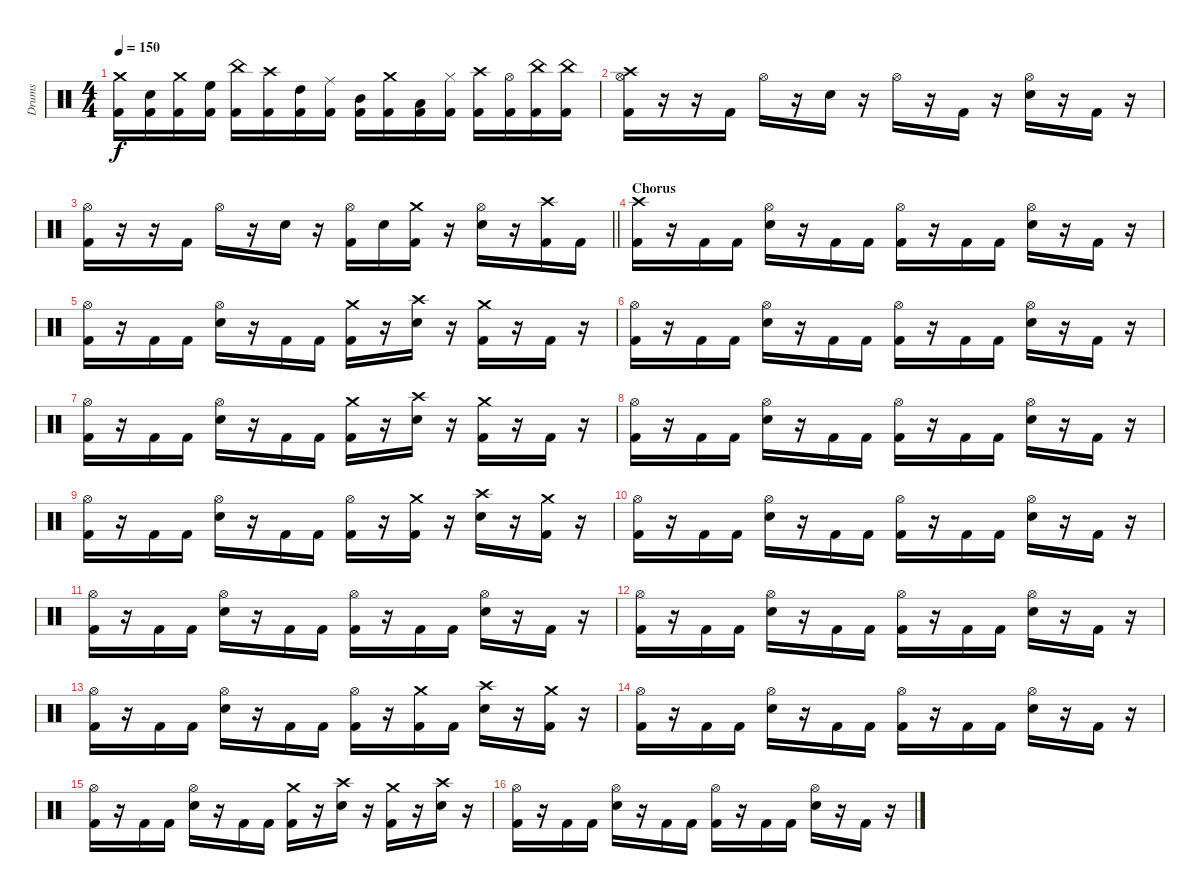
\track ("Drums" "Drums") {instrument percussion}
\staff {score}
\articulation defaults
\ts (4 4)
\tempo 150
\clef neutral
\ks c
("Crash medium (hit)" "Kick (hit) 2").16{dy f} ("Snare (hit) 2" "Kick (hit) 2").16 ("Crash medium (hit)" "Kick (hit) 2").16 ("High Floor Tom (hit)" "Kick (hit) 2").16 ("China (hit)" "Kick (hit) 2").16 ("Crash high (hit)" "Kick (hit) 2").16 ("High Tom (hit)" "Kick (hit) 2").16 ("Ride (middle)" "Kick (hit) 2").16 ("Mid Tom (hit)" "Kick (hit) 2").16 ("Crash medium (hit)" "Kick (hit) 2").16 ("Low Tom (hit)" "Kick (hit) 2").16 ("Hi-Hat (closed)" "Kick (hit) 2").16 ("Crash high (hit)" "Kick (hit) 2").16 ("Hi-Hat (open)" "Kick (hit) 2").16 ("China (hit)" "Kick (hit) 2").16 ("China (hit)" "Kick (hit) 2").16 |
("Hi-Hat (open)" "Crash high (hit)" "Kick (hit) 2").16 r.16 r.16 "Kick (hit) 2".16 "Hi-Hat (open)".16 r.16 "Snare (hit) 2".16 r.16 "Hi-Hat (open)".16 r.16 "Kick (hit) 2".16 r.16 ("Hi-Hat (open)" "Snare (hit) 2").16 r.16 "Kick (hit) 2".16 r.16 |
\barLineRight lightlight
("Hi-Hat (open)" "Kick (hit) 2").16 r.16 r.16 "Kick (hit) 2".16 "Hi-Hat (open)".16 r.16 "Snare (hit) 2".16 r.16 ("Hi-Hat (open)" "Kick (hit) 2").16 "Snare (hit) 2".16 ("Crash medium (hit)" "Kick (hit) 2").16 r.16 ("Hi-Hat (open)" "Snare (hit) 2").16 r.16 ("Crash high (hit)" "Kick (hit) 2").16 "Kick (hit) 2".16 |
\section ("" "Chorus")
("Crash high (hit)" "Kick (hit) 2").16 r.16 "Kick (hit) 2".16 "Kick (hit) 2".16 ("Hi-Hat (open)" "Snare (hit) 2").16 r.16 "Kick (hit) 2".16 "Kick (hit) 2".16 ("Hi-Hat (open)" "Kick (hit) 2").16 r.16 "Kick (hit) 2".16 "Kick (hit) 2".16 ("Hi-Hat (open)" "Snare (hit) 2").16 r.16 "Kick (hit) 2".16 r.16 |
("Hi-Hat (open)" "Kick (hit) 2").16 r.16 "Kick (hit) 2".16 "Kick (hit) 2".16 ("Hi-Hat (open)" "Snare (hit) 2").16 r.16 "Kick (hit) 2".16 "Kick (hit) 2".16 ("Crash medium (hit)" "Kick (hit) 2").16 r.16 ("Crash high (hit)" "Snare (hit) 2").16 r.16 ("Crash medium (hit)" "Kick (hit) 2").16 r.16 "Kick (hit) 2".16 r.16 |
("Hi-Hat (open)" "Kick (hit) 2").16 r.16 "Kick (hit) 2".16 "Kick (hit) 2".16 ("Hi-Hat (open)" "Snare (hit) 2").16 r.16 "Kick (hit) 2".16 "Kick (hit) 2".16 ("Hi-Hat (open)" "Kick (hit) 2").16 r.16 "Kick (hit) 2".16 "Kick (hit) 2".16 ("Hi-Hat (open)" "Snare (hit) 2").16 r.16 "Kick (hit) 2".16 r.16 |
("Hi-Hat (open)" "Kick (hit) 2").16 r.16 "Kick (hit) 2".16 "Kick (hit) 2".16 ("Hi-Hat (open)" "Snare (hit) 2").16 r.16 "Kick (hit) 2".16 "Kick (hit) 2".16 ("Crash medium (hit)" "Kick (hit) 2").16 r.16 ("Crash high (hit)" "Snare (hit) 2").16 r.16 ("Crash medium (hit)" "Kick (hit) 2").16 r.16 "Kick (hit) 2".16 r.16 |
("Hi-Hat (open)" "Kick (hit) 2").16 r.16 "Kick (hit) 2".16 "Kick (hit) 2".16 ("Hi-Hat (open)" "Snare (hit) 2").16 r.16 "Kick (hit) 2".16 "Kick (hit) 2".16 ("Hi-Hat (open)" "Kick (hit) 2").16 r.16 "Kick (hit) 2".16 "Kick (hit) 2".16 ("Hi-Hat (open)" "Snare (hit) 2").16 r.16 "Kick (hit) 2".16 r.16 |
("Hi-Hat (open)" "Kick (hit) 2").16 r.16 "Kick (hit) 2".16 "Kick (hit) 2".16 ("Hi-Hat (open)" "Snare (hit) 2").16 r.16 "Kick (hit) 2".16 "Kick (hit) 2".16 ("Hi-Hat (open)" "Kick (hit) 2").16 r.16 ("Crash medium (hit)" "Kick (hit) 2").16 r.16 ("Crash high (hit)" "Snare (hit) 2").16 r.16 ("Crash medium (hit)" "Kick (hit) 2").16 r.16 |
("Hi-Hat (open)" "Kick (hit) 2").16 r.16 "Kick (hit) 2".16 "Kick (hit) 2".16 ("Hi-Hat (open)" "Snare (hit) 2").16 r.16 "Kick (hit) 2".16 "Kick (hit) 2".16 ("Hi-Hat (open)" "Kick (hit) 2").16 r.16 "Kick (hit) 2".16 "Kick (hit) 2".16 ("Hi-Hat (open)" "Snare (hit) 2").16 r.16 "Kick (hit) 2".16 r.16 |
("Hi-Hat (open)" "Kick (hit) 2").16 r.16 "Kick (hit) 2".16 "Kick (hit) 2".16 ("Hi-Hat (open)" "Snare (hit) 2").16 r.16 "Kick (hit) 2".16 "Kick (hit) 2".16 ("Hi-Hat (open)" "Kick (hit) 2").16 r.16 "Kick (hit) 2".16 "Kick (hit) 2".16 ("Hi-Hat (open)" "Snare (hit) 2").16 r.16 "Kick (hit) 2".16 r.16 |
("Hi-Hat (open)" "Kick (hit) 2").16 r.16 "Kick (hit) 2".16 "Kick (hit) 2".16 ("Hi-Hat (open)" "Snare (hit) 2").16 r.16 "Kick (hit) 2".16 "Kick (hit) 2".16 ("Hi-Hat (open)" "Kick (hit) 2").16 r.16 "Kick (hit) 2".16 "Kick (hit) 2".16 ("Hi-Hat (open)" "Snare (hit) 2").16 r.16 "Kick (hit) 2".16 r.16 |
("Hi-Hat (open)" "Kick (hit) 2").16 r.16 "Kick (hit) 2".16 "Kick (hit) 2".16 ("Hi-Hat (open)" "Snare (hit) 2").16 r.16 "Kick (hit) 2".16 "Kick (hit) 2".16 ("Hi-Hat (open)" "Kick (hit) 2").16 r.16 ("Crash medium (hit)" "Kick (hit) 2").16 "Kick (hit) 2".16 ("Crash high (hit)" "Snare (hit) 2").16 r.16 ("Crash medium (hit)" "Kick (hit) 2").16 r.16 |
("Hi-Hat (open)" "Kick (hit) 2").16 r.16 "Kick (hit) 2".16 "Kick (hit) 2".16 ("Hi-Hat (open)" "Snare (hit) 2").16 r.16 "Kick (hit) 2".16 "Kick (hit) 2".16 ("Hi-Hat (open)" "Kick (hit) 2").16 r.16 "Kick (hit) 2".16 "Kick (hit) 2".16 ("Hi-Hat (open)" "Snare (hit) 2").16 r.16 "Kick (hit) 2".16 r.16 |
("Hi-Hat (open)" "Kick (hit) 2").16 r.16 "Kick (hit) 2".16 "Kick (hit) 2".16 ("Hi-Hat (open)" "Snare (hit) 2").16 r.16 "Kick (hit) 2".16 "Kick (hit) 2".16 ("Crash medium (hit)" "Kick (hit) 2").16 r.16 ("Crash high (hit)" "Snare (hit) 2").16 r.16 ("Crash medium (hit)" "Kick (hit) 2").16 r.16 ("Crash high (hit)" "Snare (hit) 2").16 r.16 |
("Hi-Hat (open)" "Kick (hit) 2").16 r.16 "Kick (hit) 2".16 "Kick (hit) 2".16 ("Hi-Hat (open)" "Snare (hit) 2").16 r.16 "Kick (hit) 2".16 "Kick (hit) 2".16 ("Hi-Hat (open)" "Kick (hit) 2").16 r.16 "Kick (hit) 2".16 "Kick (hit) 2".16 ("Hi-Hat (open)" "Snare (hit) 2").16 r.16 "Kick (hit) 2".16 r.16
